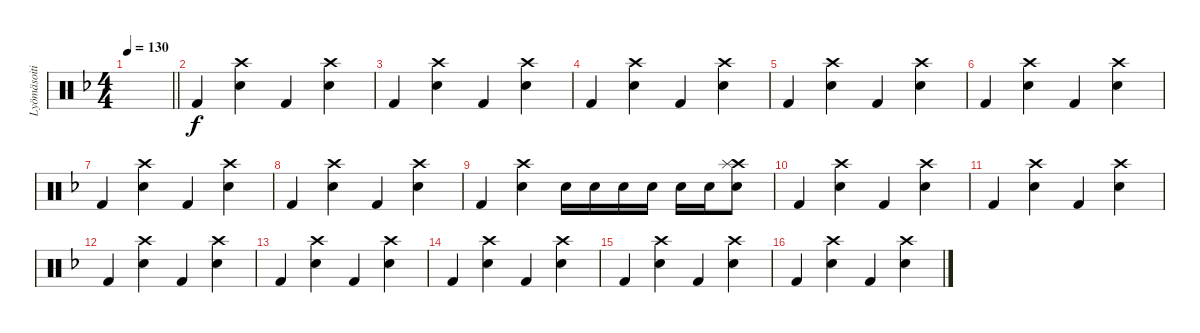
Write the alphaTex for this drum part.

\track ("Lyömäsoitin" "Lyömäsoiti") {instrument percussion}
\staff {score}
\articulation defaults
\ts (4 4)
\tempo 130
\clef neutral
\barLineRight lightlight
\ks f
|
"Kick (hit) 2".4 ("Electric Snare (hit)" "Crash high (hit)").4 "Kick (hit) 2".4 ("Electric Snare (hit)" "Crash high (hit)").4 |
"Kick (hit) 2".4 ("Electric Snare (hit)" "Crash high (hit)").4 "Kick (hit) 2".4 ("Electric Snare (hit)" "Crash high (hit)").4 |
"Kick (hit) 2".4 ("Electric Snare (hit)" "Crash high (hit)").4 "Kick (hit) 2".4 ("Electric Snare (hit)" "Crash high (hit)").4 |
"Kick (hit) 2".4 ("Electric Snare (hit)" "Crash high (hit)").4 "Kick (hit) 2".4 ("Electric Snare (hit)" "Crash high (hit)").4 |
"Kick (hit) 2".4 ("Electric Snare (hit)" "Crash high (hit)").4 "Kick (hit) 2".4 ("Electric Snare (hit)" "Crash high (hit)").4 |
"Kick (hit) 2".4 ("Electric Snare (hit)" "Crash high (hit)").4 "Kick (hit) 2".4 ("Electric Snare (hit)" "Crash high (hit)").4 |
"Kick (hit) 2".4 ("Electric Snare (hit)" "Crash high (hit)").4 "Kick (hit) 2".4 ("Electric Snare (hit)" "Crash high (hit)").4 |
"Kick (hit) 2".4 ("Electric Snare (hit)" "Crash high (hit)").4 "Electric Snare (hit)".16 "Electric Snare (hit)".16 "Electric Snare (hit)".16 "Electric Snare (hit)".16 "Electric Snare (hit)".16 "Electric Snare (hit)".16 ("Electric Snare (hit)" "Crash high (hit)" "Splash (hit)").8 |
"Kick (hit) 2".4 ("Electric Snare (hit)" "Crash high (hit)").4 "Kick (hit) 2".4 ("Electric Snare (hit)" "Crash high (hit)").4 |
"Kick (hit) 2".4 ("Electric Snare (hit)" "Crash high (hit)").4 "Kick (hit) 2".4 ("Electric Snare (hit)" "Crash high (hit)").4 |
"Kick (hit) 2".4 ("Electric Snare (hit)" "Crash high (hit)").4 "Kick (hit) 2".4 ("Electric Snare (hit)" "Crash high (hit)").4 |
"Kick (hit) 2".4 ("Electric Snare (hit)" "Crash high (hit)").4 "Kick (hit) 2".4 ("Electric Snare (hit)" "Crash high (hit)").4 |
"Kick (hit) 2".4 ("Electric Snare (hit)" "Crash high (hit)").4 "Kick (hit) 2".4 ("Electric Snare (hit)" "Crash high (hit)").4 |
"Kick (hit) 2".4 ("Electric Snare (hit)" "Crash high (hit)").4 "Kick (hit) 2".4 ("Electric Snare (hit)" "Crash high (hit)").4 |
"Kick (hit) 2".4 ("Electric Snare (hit)" "Crash high (hit)").4 "Kick (hit) 2".4 ("Electric Snare (hit)" "Crash high (hit)").4
